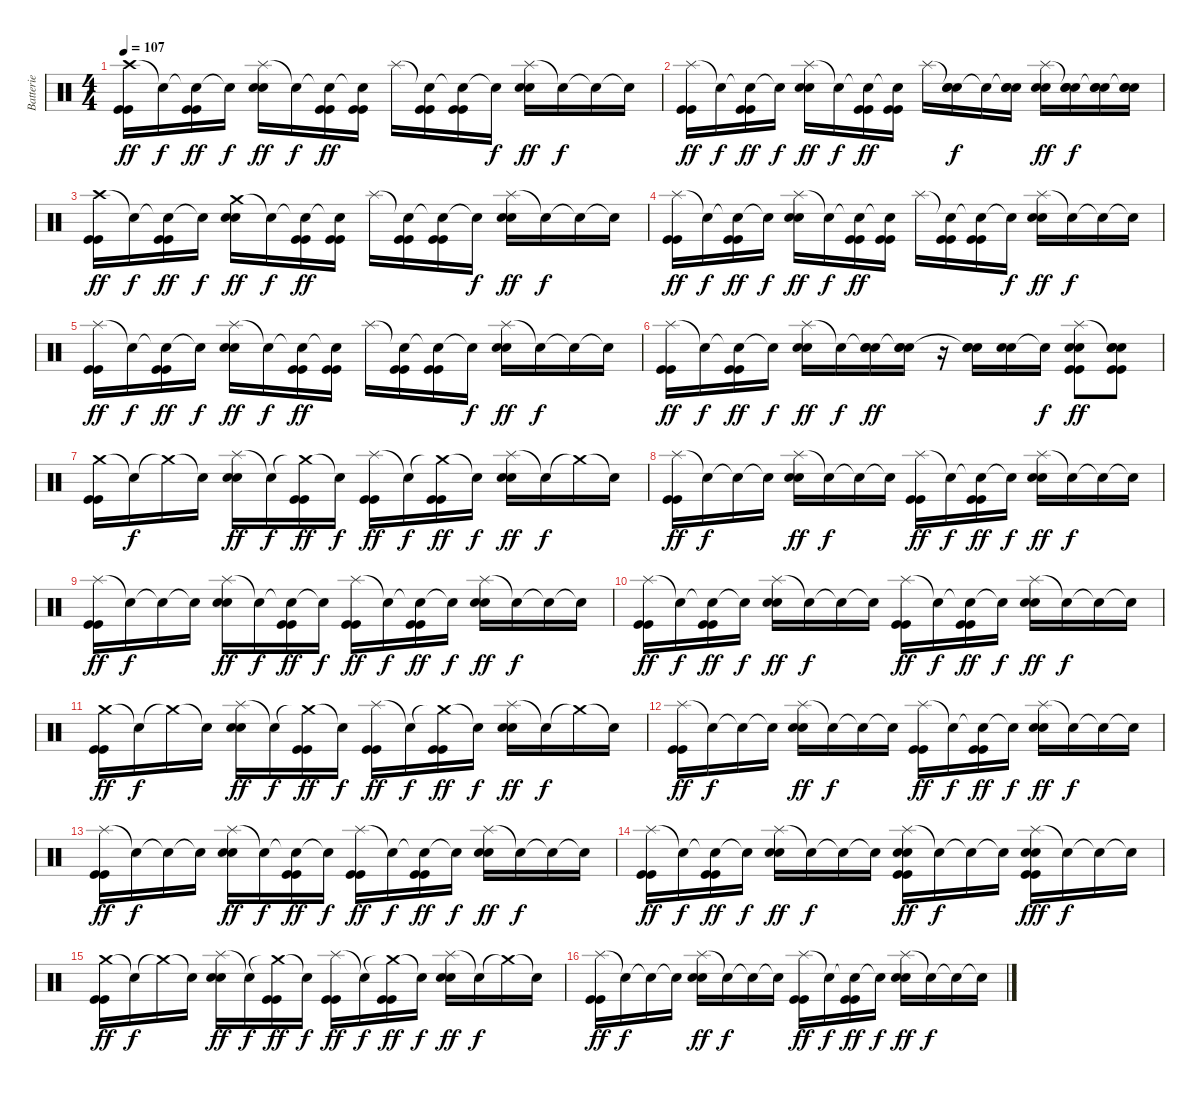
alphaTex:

\track ("Batterie" "Batterie") {instrument percussion}
\staff {score}
\articulation defaults
\ts (4 4)
\tempo 107
\clef neutral
\ks c
("Crash high (hit)" "Kick (hit)" "Kick (hit)").16{dy ff} "Snare (hit)"{t}.16{dy f} ("Snare (hit)"{t} "Kick (hit)" "Kick (hit)").16{dy ff} "Snare (hit)"{t}.16{dy f} ("Splash (hit)" "Snare (hit) 2" "Snare (hit) 2").16{dy ff} "Snare (hit)"{t}.16{dy f} ("Snare (hit)"{t} "Kick (hit)" "Kick (hit)").16{dy ff} ("Snare (hit)"{t} "Kick (hit)" "Kick (hit)").16 "Splash (hit)".16 ("Snare (hit)"{t} "Kick (hit)" "Kick (hit)").16 ("Snare (hit)"{t} "Kick (hit)" "Kick (hit)").16 "Snare (hit)"{t}.16{dy f} ("Splash (hit)" "Snare (hit) 2" "Snare (hit) 2").16{dy ff} "Snare (hit)"{t}.16{dy f} "Snare (hit)"{t}.16 "Snare (hit)"{t}.16 |
("Splash (hit)" "Kick (hit)" "Kick (hit)").16{dy ff} "Snare (hit)"{t}.16{dy f} ("Snare (hit)"{t} "Kick (hit)" "Kick (hit)").16{dy ff} "Snare (hit)"{t}.16{dy f} ("Splash (hit)" "Snare (hit) 2" "Snare (hit) 2").16{dy ff} "Snare (hit)"{t}.16{dy f} ("Snare (hit)"{t} "Kick (hit)" "Kick (hit)").16{dy ff} ("Snare (hit)"{t} "Kick (hit)" "Kick (hit)").16 "Splash (hit)".16 ("Snare (hit)"{t} "Snare (hit) 2" "Snare (hit) 2").16{dy f} "Snare (hit)"{t}.16 ("Snare (hit)"{t} "Snare (hit) 2" "Snare (hit) 2").16 ("Splash (hit)" "Snare (hit) 2" "Snare (hit) 2").16{dy ff} ("Snare (hit)"{t} "Snare (hit) 2" "Snare (hit) 2").16{dy f} ("Snare (hit)"{t} "Snare (hit) 2" "Snare (hit) 2").16 ("Snare (hit)"{t} "Snare (hit) 2" "Snare (hit) 2").16 |
("Crash high (hit)" "Kick (hit)" "Kick (hit)").16{dy ff} "Snare (hit)"{t}.16{dy f} ("Snare (hit)"{t} "Kick (hit)" "Kick (hit)").16{dy ff} "Snare (hit)"{t}.16{dy f} ("Crash medium (hit)" "Snare (hit) 2" "Snare (hit) 2").16{dy ff} "Snare (hit)"{t}.16{dy f} ("Snare (hit)"{t} "Kick (hit)" "Kick (hit)").16{dy ff} ("Snare (hit)"{t} "Kick (hit)" "Kick (hit)").16 "Splash (hit)".16 ("Snare (hit)"{t} "Kick (hit)" "Kick (hit)").16 ("Snare (hit)"{t} "Kick (hit)" "Kick (hit)").16 "Snare (hit)"{t}.16{dy f} ("Splash (hit)" "Snare (hit) 2" "Snare (hit) 2").16{dy ff} "Snare (hit)"{t}.16{dy f} "Snare (hit)"{t}.16 "Snare (hit)"{t}.16 |
("Splash (hit)" "Kick (hit)" "Kick (hit)").16{dy ff} "Snare (hit)"{t}.16{dy f} ("Snare (hit)"{t} "Kick (hit)" "Kick (hit)").16{dy ff} "Snare (hit)"{t}.16{dy f} ("Splash (hit)" "Snare (hit) 2" "Snare (hit) 2").16{dy ff} "Snare (hit)"{t}.16{dy f} ("Snare (hit)"{t} "Kick (hit)" "Kick (hit)").16{dy ff} ("Snare (hit)"{t} "Kick (hit)" "Kick (hit)").16 "Splash (hit)".16 ("Snare (hit)"{t} "Kick (hit)" "Kick (hit)").16 ("Snare (hit)"{t} "Kick (hit)" "Kick (hit)").16 "Snare (hit)"{t}.16{dy f} ("Splash (hit)" "Snare (hit) 2" "Snare (hit) 2").16{dy ff} "Snare (hit)"{t}.16{dy f} "Snare (hit)"{t}.16 "Snare (hit)"{t}.16 |
("Splash (hit)" "Kick (hit)" "Kick (hit)").16{dy ff} "Snare (hit)"{t}.16{dy f} ("Snare (hit)"{t} "Kick (hit)" "Kick (hit)").16{dy ff} "Snare (hit)"{t}.16{dy f} ("Splash (hit)" "Snare (hit) 2" "Snare (hit) 2").16{dy ff} "Snare (hit)"{t}.16{dy f} ("Snare (hit)"{t} "Kick (hit)" "Kick (hit)").16{dy ff} ("Snare (hit)"{t} "Kick (hit)" "Kick (hit)").16 "Splash (hit)".16 ("Snare (hit)"{t} "Kick (hit)" "Kick (hit)").16 ("Snare (hit)"{t} "Kick (hit)" "Kick (hit)").16 "Snare (hit)"{t}.16{dy f} ("Splash (hit)" "Snare (hit) 2" "Snare (hit) 2").16{dy ff} "Snare (hit)"{t}.16{dy f} "Snare (hit)"{t}.16 "Snare (hit)"{t}.16 |
("Splash (hit)" "Kick (hit)" "Kick (hit)").16{dy ff} "Snare (hit)"{t}.16{dy f} ("Snare (hit)"{t} "Kick (hit)" "Kick (hit)").16{dy ff} "Snare (hit)"{t}.16{dy f} ("Splash (hit)" "Snare (hit) 2" "Snare (hit) 2").16{dy ff} "Snare (hit)"{t}.16{dy f} ("Snare (hit)"{t} "Snare (hit) 2" "Snare (hit) 2").16{dy ff} ("Snare (hit)"{t} "Snare (hit) 2" "Snare (hit) 2").16 r.16 ("Snare (hit)"{t} "Snare (hit) 2" "Snare (hit) 2").16 ("Snare (hit) 2" "Snare (hit) 2").16 "Snare (hit)"{t}.16{dy f} ("Splash (hit)" "Snare (hit) 2" "Snare (hit) 2" "Kick (hit)" "Kick (hit)").8{dy ff} ("Snare (hit)"{t} "Snare (hit) 2" "Snare (hit) 2" "Kick (hit)" "Kick (hit)").8 |
("Crash medium (hit)" "Kick (hit)" "Kick (hit)").16 "Snare (hit)"{t}.16{dy f} "Crash medium (hit)"{t}.16 "Snare (hit)"{t}.16 ("Splash (hit)" "Snare (hit) 2" "Snare (hit) 2").16{dy ff} "Snare (hit)"{t}.16{dy f} ("Crash medium (hit)"{t} "Kick (hit)" "Kick (hit)").16{dy ff} "Snare (hit)"{t}.16{dy f} ("Splash (hit)" "Kick (hit)" "Kick (hit)").16{dy ff} "Snare (hit)"{t}.16{dy f} ("Crash medium (hit)"{t} "Kick (hit)" "Kick (hit)").16{dy ff} "Snare (hit)"{t}.16{dy f} ("Splash (hit)" "Snare (hit) 2" "Snare (hit) 2").16{dy ff} "Snare (hit)"{t}.16{dy f} "Crash medium (hit)"{t}.16 "Snare (hit)"{t}.16 |
("Splash (hit)" "Kick (hit)" "Kick (hit)").16{dy ff} "Snare (hit)"{t}.16{dy f} "Snare (hit)"{t}.16 "Snare (hit)"{t}.16 ("Splash (hit)" "Snare (hit) 2" "Snare (hit) 2").16{dy ff} "Snare (hit)"{t}.16{dy f} "Snare (hit)"{t}.16 "Snare (hit)"{t}.16 ("Splash (hit)" "Kick (hit)" "Kick (hit)").16{dy ff} "Snare (hit)"{t}.16{dy f} ("Snare (hit)"{t} "Kick (hit)" "Kick (hit)").16{dy ff} "Snare (hit)"{t}.16{dy f} ("Splash (hit)" "Snare (hit) 2" "Snare (hit) 2").16{dy ff} "Snare (hit)"{t}.16{dy f} "Snare (hit)"{t}.16 "Snare (hit)"{t}.16 |
("Splash (hit)" "Kick (hit)" "Kick (hit)").16{dy ff} "Snare (hit)"{t}.16{dy f} "Snare (hit)"{t}.16 "Snare (hit)"{t}.16 ("Splash (hit)" "Snare (hit) 2" "Snare (hit) 2").16{dy ff} "Snare (hit)"{t}.16{dy f} ("Snare (hit)"{t} "Kick (hit)" "Kick (hit)").16{dy ff} "Snare (hit)"{t}.16{dy f} ("Splash (hit)" "Kick (hit)" "Kick (hit)").16{dy ff} "Snare (hit)"{t}.16{dy f} ("Snare (hit)"{t} "Kick (hit)" "Kick (hit)").16{dy ff} "Snare (hit)"{t}.16{dy f} ("Splash (hit)" "Snare (hit) 2" "Snare (hit) 2").16{dy ff} "Snare (hit)"{t}.16{dy f} "Snare (hit)"{t}.16 "Snare (hit)"{t}.16 |
("Splash (hit)" "Kick (hit)" "Kick (hit)").16{dy ff} "Snare (hit)"{t}.16{dy f} ("Snare (hit)"{t} "Kick (hit)" "Kick (hit)").16{dy ff} "Snare (hit)"{t}.16{dy f} ("Splash (hit)" "Snare (hit) 2" "Snare (hit) 2").16{dy ff} "Snare (hit)"{t}.16{dy f} "Snare (hit)"{t}.16 "Snare (hit)"{t}.16 ("Splash (hit)" "Kick (hit)" "Kick (hit)").16{dy ff} "Snare (hit)"{t}.16{dy f} ("Snare (hit)"{t} "Kick (hit)" "Kick (hit)").16{dy ff} "Snare (hit)"{t}.16{dy f} ("Splash (hit)" "Snare (hit) 2" "Snare (hit) 2").16{dy ff} "Snare (hit)"{t}.16{dy f} "Snare (hit)"{t}.16 "Snare (hit)"{t}.16 |
("Crash medium (hit)" "Kick (hit)" "Kick (hit)").16{dy ff} "Snare (hit)"{t}.16{dy f} "Crash medium (hit)"{t}.16 "Snare (hit)"{t}.16 ("Splash (hit)" "Snare (hit) 2" "Snare (hit) 2").16{dy ff} "Snare (hit)"{t}.16{dy f} ("Crash medium (hit)"{t} "Kick (hit)" "Kick (hit)").16{dy ff} "Snare (hit)"{t}.16{dy f} ("Splash (hit)" "Kick (hit)" "Kick (hit)").16{dy ff} "Snare (hit)"{t}.16{dy f} ("Crash medium (hit)"{t} "Kick (hit)" "Kick (hit)").16{dy ff} "Snare (hit)"{t}.16{dy f} ("Splash (hit)" "Snare (hit) 2" "Snare (hit) 2").16{dy ff} "Snare (hit)"{t}.16{dy f} "Crash medium (hit)"{t}.16 "Snare (hit)"{t}.16 |
("Splash (hit)" "Kick (hit)" "Kick (hit)").16{dy ff} "Snare (hit)"{t}.16{dy f} "Snare (hit)"{t}.16 "Snare (hit)"{t}.16 ("Splash (hit)" "Snare (hit) 2" "Snare (hit) 2").16{dy ff} "Snare (hit)"{t}.16{dy f} "Snare (hit)"{t}.16 "Snare (hit)"{t}.16 ("Splash (hit)" "Kick (hit)" "Kick (hit)").16{dy ff} "Snare (hit)"{t}.16{dy f} ("Snare (hit)"{t} "Kick (hit)" "Kick (hit)").16{dy ff} "Snare (hit)"{t}.16{dy f} ("Splash (hit)" "Snare (hit) 2" "Snare (hit) 2").16{dy ff} "Snare (hit)"{t}.16{dy f} "Snare (hit)"{t}.16 "Snare (hit)"{t}.16 |
("Splash (hit)" "Kick (hit)" "Kick (hit)").16{dy ff} "Snare (hit)"{t}.16{dy f} "Snare (hit)"{t}.16 "Snare (hit)"{t}.16 ("Splash (hit)" "Snare (hit) 2" "Snare (hit) 2").16{dy ff} "Snare (hit)"{t}.16{dy f} ("Snare (hit)"{t} "Kick (hit)" "Kick (hit)").16{dy ff} "Snare (hit)"{t}.16{dy f} ("Splash (hit)" "Kick (hit)" "Kick (hit)").16{dy ff} "Snare (hit)"{t}.16{dy f} ("Snare (hit)"{t} "Kick (hit)" "Kick (hit)").16{dy ff} "Snare (hit)"{t}.16{dy f} ("Splash (hit)" "Snare (hit) 2" "Snare (hit) 2").16{dy ff} "Snare (hit)"{t}.16{dy f} "Snare (hit)"{t}.16 "Snare (hit)"{t}.16 |
("Splash (hit)" "Kick (hit)" "Kick (hit)").16{dy ff} "Snare (hit)"{t}.16{dy f} ("Snare (hit)"{t} "Kick (hit)" "Kick (hit)").16{dy ff} "Snare (hit)"{t}.16{dy f} ("Splash (hit)" "Snare (hit) 2" "Snare (hit) 2").16{dy ff} "Snare (hit)"{t}.16{dy f} "Snare (hit)"{t}.16 "Snare (hit)"{t}.16 ("Splash (hit)" "Snare (hit) 2" "Snare (hit) 2" "Kick (hit)" "Kick (hit)").16{dy ff} "Snare (hit)"{t}.16{dy f} "Snare (hit)"{t}.16 "Snare (hit)"{t}.16 ("Splash (hit)" "Snare (hit) 2" "Snare (hit) 2" "Kick (hit)" "Kick (hit)").16{dy fff} "Snare (hit)"{t}.16{dy f} "Snare (hit)"{t}.16 "Snare (hit)"{t}.16 |
("Crash medium (hit)" "Kick (hit)" "Kick (hit)").16{dy ff} "Snare (hit)"{t}.16{dy f} "Crash medium (hit)"{t}.16 "Snare (hit)"{t}.16 ("Splash (hit)" "Snare (hit) 2" "Snare (hit) 2").16{dy ff} "Snare (hit)"{t}.16{dy f} ("Crash medium (hit)"{t} "Kick (hit)" "Kick (hit)").16{dy ff} "Snare (hit)"{t}.16{dy f} ("Splash (hit)" "Kick (hit)" "Kick (hit)").16{dy ff} "Snare (hit)"{t}.16{dy f} ("Crash medium (hit)"{t} "Kick (hit)" "Kick (hit)").16{dy ff} "Snare (hit)"{t}.16{dy f} ("Splash (hit)" "Snare (hit) 2" "Snare (hit) 2").16{dy ff} "Snare (hit)"{t}.16{dy f} "Crash medium (hit)"{t}.16 "Snare (hit)"{t}.16 |
("Splash (hit)" "Kick (hit)" "Kick (hit)").16{dy ff} "Snare (hit)"{t}.16{dy f} "Snare (hit)"{t}.16 "Snare (hit)"{t}.16 ("Splash (hit)" "Snare (hit) 2" "Snare (hit) 2").16{dy ff} "Snare (hit)"{t}.16{dy f} "Snare (hit)"{t}.16 "Snare (hit)"{t}.16 ("Splash (hit)" "Kick (hit)" "Kick (hit)").16{dy ff} "Snare (hit)"{t}.16{dy f} ("Snare (hit)"{t} "Kick (hit)" "Kick (hit)").16{dy ff} "Snare (hit)"{t}.16{dy f} ("Splash (hit)" "Snare (hit) 2" "Snare (hit) 2").16{dy ff} "Snare (hit)"{t}.16{dy f} "Snare (hit)"{t}.16 "Snare (hit)"{t}.16
